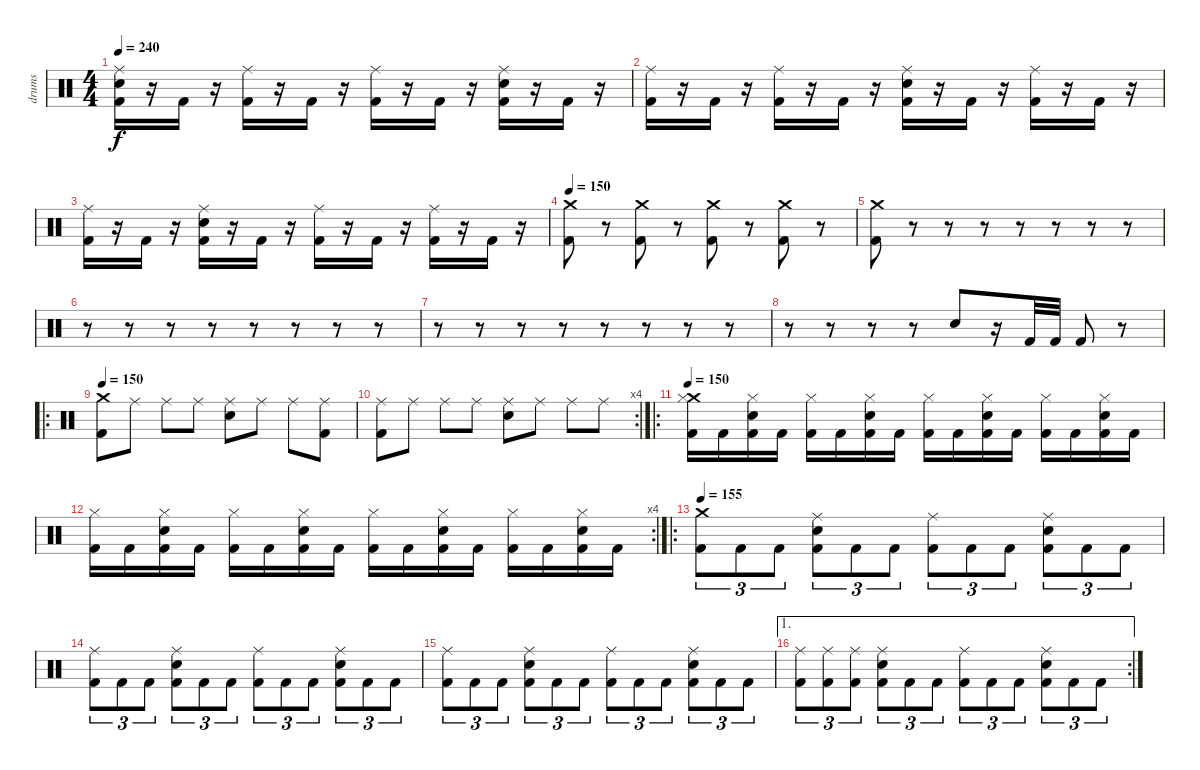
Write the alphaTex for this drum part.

\track ("drums" "drums") {instrument percussion}
\staff {score}
\articulation defaults
\ts (4 4)
\tempo 240
\clef neutral
\ks c
("Ride (middle)" "Snare (hit) 2" "Kick (hit) 2").16{dy f} r.16 "Kick (hit) 2".16 r.16 ("Ride (middle)" "Kick (hit) 2").16 r.16 "Kick (hit) 2".16 r.16 ("Ride (middle)" "Kick (hit) 2").16 r.16 "Kick (hit) 2".16 r.16 ("Ride (middle)" "Snare (hit) 2" "Kick (hit) 2").16 r.16 "Kick (hit) 2".16 r.16 |
("Ride (middle)" "Kick (hit) 2").16 r.16 "Kick (hit) 2".16 r.16 ("Ride (middle)" "Kick (hit) 2").16 r.16 "Kick (hit) 2".16 r.16 ("Ride (middle)" "Snare (hit) 2" "Kick (hit) 2").16 r.16 "Kick (hit) 2".16 r.16 ("Ride (middle)" "Kick (hit) 2").16 r.16 "Kick (hit) 2".16 r.16 |
("Ride (middle)" "Kick (hit) 2").16 r.16 "Kick (hit) 2".16 r.16 ("Ride (middle)" "Snare (hit) 2" "Kick (hit) 2").16 r.16 "Kick (hit) 2".16 r.16 ("Ride (middle)" "Kick (hit) 2").16 r.16 "Kick (hit) 2".16 r.16 ("Ride (middle)" "Kick (hit) 2").16 r.16 "Kick (hit) 2".16 r.16 |
\tempo 150
("Crash medium (hit)" "Kick (hit) 2").8 r.8 ("Crash medium (hit)" "Kick (hit) 2").8 r.8 ("Crash medium (hit)" "Kick (hit) 2").8 r.8 ("Crash medium (hit)" "Kick (hit) 2").8 r.8 |
("Crash medium (hit)" "Kick (hit) 2").8 r.8 r.8 r.8 r.8 r.8 r.8 r.8 |
r.8 r.8 r.8 r.8 r.8 r.8 r.8 r.8 |
r.8 r.8 r.8 r.8 r.8 r.8 r.8 r.8 |
r.8 r.8 r.8 r.8 "Snare (hit) 2".8 r.16 "Kick (hit) 2".32 "Kick (hit) 2".32 "Kick (hit) 2".8 r.8 |
\ro
\tempo 150
("Crash medium (hit)" "Kick (hit) 2").8 "Ride (middle)".8 "Ride (middle)".8 "Ride (middle)".8 ("Ride (middle)" "Snare (hit) 2").8 "Ride (middle)".8 "Ride (middle)".8 ("Ride (middle)" "Kick (hit) 2").8 |
\rc 4
("Ride (middle)" "Kick (hit) 2").8 "Ride (middle)".8 "Ride (middle)".8 "Ride (middle)".8 ("Ride (middle)" "Snare (hit) 2").8 "Ride (middle)".8 "Ride (middle)".8 "Ride (middle)".8 |
\ro
\tempo 150
("Crash medium (hit)" "Hi-Hat (closed)" "Kick (hit) 2").16 "Kick (hit) 2".16 ("Hi-Hat (closed)" "Snare (hit) 2" "Kick (hit) 2").16 "Kick (hit) 2".16 ("Hi-Hat (closed)" "Kick (hit) 2").16 "Kick (hit) 2".16 ("Hi-Hat (closed)" "Snare (hit) 2" "Kick (hit) 2").16 "Kick (hit) 2".16 ("Hi-Hat (closed)" "Kick (hit) 2").16 "Kick (hit) 2".16 ("Hi-Hat (closed)" "Snare (hit) 2" "Kick (hit) 2").16 "Kick (hit) 2".16 ("Hi-Hat (closed)" "Kick (hit) 2").16 "Kick (hit) 2".16 ("Hi-Hat (closed)" "Snare (hit) 2" "Kick (hit) 2").16 "Kick (hit) 2".16 |
\rc 4
("Hi-Hat (closed)" "Kick (hit) 2").16 "Kick (hit) 2".16 ("Hi-Hat (closed)" "Snare (hit) 2" "Kick (hit) 2").16 "Kick (hit) 2".16 ("Hi-Hat (closed)" "Kick (hit) 2").16 "Kick (hit) 2".16 ("Hi-Hat (closed)" "Snare (hit) 2" "Kick (hit) 2").16 "Kick (hit) 2".16 ("Hi-Hat (closed)" "Kick (hit) 2").16 "Kick (hit) 2".16 ("Hi-Hat (closed)" "Snare (hit) 2" "Kick (hit) 2").16 "Kick (hit) 2".16 ("Hi-Hat (closed)" "Kick (hit) 2").16 "Kick (hit) 2".16 ("Hi-Hat (closed)" "Snare (hit) 2" "Kick (hit) 2").16 "Kick (hit) 2".16 |
\ro
\tempo 155
("Crash medium (hit)" "Kick (hit) 2").8{tu (3 2)} "Kick (hit) 2".8{tu (3 2)} "Kick (hit) 2".8{tu (3 2)} ("Ride (middle)" "Snare (hit) 2" "Kick (hit) 2").8{tu (3 2)} "Kick (hit) 2".8{tu (3 2)} "Kick (hit) 2".8{tu (3 2)} ("Ride (middle)" "Kick (hit) 2").8{tu (3 2)} "Kick (hit) 2".8{tu (3 2)} "Kick (hit) 2".8{tu (3 2)} ("Ride (middle)" "Snare (hit) 2" "Kick (hit) 2").8{tu (3 2)} "Kick (hit) 2".8{tu (3 2)} "Kick (hit) 2".8{tu (3 2)} |
("Ride (middle)" "Kick (hit) 2").8{tu (3 2)} "Kick (hit) 2".8{tu (3 2)} "Kick (hit) 2".8{tu (3 2)} ("Ride (middle)" "Snare (hit) 2" "Kick (hit) 2").8{tu (3 2)} "Kick (hit) 2".8{tu (3 2)} "Kick (hit) 2".8{tu (3 2)} ("Ride (middle)" "Kick (hit) 2").8{tu (3 2)} "Kick (hit) 2".8{tu (3 2)} "Kick (hit) 2".8{tu (3 2)} ("Ride (middle)" "Snare (hit) 2" "Kick (hit) 2").8{tu (3 2)} "Kick (hit) 2".8{tu (3 2)} "Kick (hit) 2".8{tu (3 2)} |
("Ride (middle)" "Kick (hit) 2").8{tu (3 2)} "Kick (hit) 2".8{tu (3 2)} "Kick (hit) 2".8{tu (3 2)} ("Ride (middle)" "Snare (hit) 2" "Kick (hit) 2").8{tu (3 2)} "Kick (hit) 2".8{tu (3 2)} "Kick (hit) 2".8{tu (3 2)} ("Ride (middle)" "Kick (hit) 2").8{tu (3 2)} "Kick (hit) 2".8{tu (3 2)} "Kick (hit) 2".8{tu (3 2)} ("Ride (middle)" "Snare (hit) 2" "Kick (hit) 2").8{tu (3 2)} "Kick (hit) 2".8{tu (3 2)} "Kick (hit) 2".8{tu (3 2)} |
\ae 1
\rc 2
("Ride (middle)" "Kick (hit) 2").8{tu (3 2)} ("Ride (middle)" "Kick (hit) 2").8{tu (3 2)} ("Ride (middle)" "Kick (hit) 2").8{tu (3 2)} ("Ride (middle)" "Snare (hit) 2" "Kick (hit) 2").8{tu (3 2)} "Kick (hit) 2".8{tu (3 2)} "Kick (hit) 2".8{tu (3 2)} ("Ride (middle)" "Kick (hit) 2").8{tu (3 2)} "Kick (hit) 2".8{tu (3 2)} "Kick (hit) 2".8{tu (3 2)} ("Ride (middle)" "Snare (hit) 2" "Kick (hit) 2").8{tu (3 2)} "Kick (hit) 2".8{tu (3 2)} "Kick (hit) 2".8{tu (3 2)}
